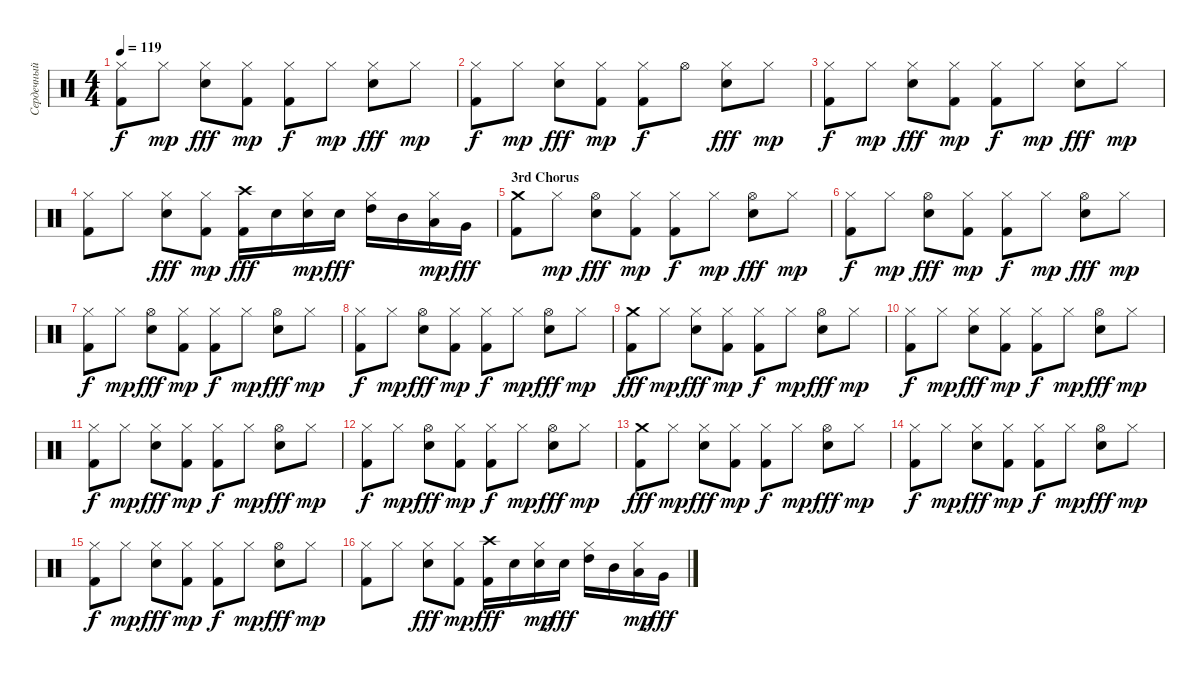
\track ("Сердечный (Ударные)" "Сердечный ") {instrument percussion}
\staff {score}
\articulation defaults
\ts (4 4)
\tempo 119
\clef neutral
\ks c
("Kick (hit) 2" "Hi-Hat (closed)").8{dy f} "Hi-Hat (closed)".8{dy mp} ("Hi-Hat (closed)" "Electric Snare (hit)").8{dy fff} ("Hi-Hat (closed)" "Kick (hit) 2").8{dy mp} ("Hi-Hat (closed)" "Kick (hit) 2").8{dy f} "Hi-Hat (closed)".8{dy mp} ("Hi-Hat (closed)" "Electric Snare (hit)").8{dy fff} "Hi-Hat (closed)".8{dy mp} |
("Kick (hit) 2" "Hi-Hat (closed)").8{dy f} "Hi-Hat (closed)".8{dy mp} ("Hi-Hat (closed)" "Electric Snare (hit)").8{dy fff} ("Hi-Hat (closed)" "Kick (hit) 2").8{dy mp} ("Hi-Hat (closed)" "Kick (hit) 2").8{dy f} "Hi-Hat (open)".8 ("Hi-Hat (closed)" "Electric Snare (hit)").8{dy fff} "Hi-Hat (closed)".8{dy mp} |
("Kick (hit) 2" "Hi-Hat (closed)").8{dy f} "Hi-Hat (closed)".8{dy mp} ("Hi-Hat (closed)" "Electric Snare (hit)").8{dy fff} ("Hi-Hat (closed)" "Kick (hit) 2").8{dy mp} ("Hi-Hat (closed)" "Kick (hit) 2").8{dy f} "Hi-Hat (closed)".8{dy mp} ("Hi-Hat (closed)" "Electric Snare (hit)").8{dy fff} "Hi-Hat (closed)".8{dy mp} |
("Kick (hit) 2" "Hi-Hat (closed)").8 "Hi-Hat (closed)".8 ("Hi-Hat (closed)" "Electric Snare (hit)").8{dy fff} ("Hi-Hat (closed)" "Kick (hit) 2").8{dy mp} ("Crash high (hit)" "Kick (hit) 2").16{dy fff} "Electric Snare (hit)".16 ("Electric Snare (hit)" "Hi-Hat (closed)").16{dy mp} "Electric Snare (hit)".16{dy fff} ("Hi-Hat (closed)" "High Tom (hit)").16 "Mid Tom (hit)".16 ("Low Tom (hit)" "Hi-Hat (closed)").16{dy mp} "Very Low Tom (hit)".16{dy fff} |
\section ("" "3rd Chorus")
("Kick (hit) 2" "Crash medium (hit)").8 "Hi-Hat (closed)".8{dy mp} ("Hi-Hat (open)" "Electric Snare (hit)").8{dy fff} ("Hi-Hat (closed)" "Kick (hit) 2").8{dy mp} ("Hi-Hat (closed)" "Kick (hit) 2").8{dy f} "Hi-Hat (closed)".8{dy mp} ("Hi-Hat (open)" "Electric Snare (hit)").8{dy fff} "Hi-Hat (closed)".8{dy mp} |
("Kick (hit) 2" "Hi-Hat (closed)").8{dy f} "Hi-Hat (closed)".8{dy mp} ("Hi-Hat (open)" "Electric Snare (hit)").8{dy fff} ("Hi-Hat (closed)" "Kick (hit) 2").8{dy mp} ("Hi-Hat (closed)" "Kick (hit) 2").8{dy f} "Hi-Hat (closed)".8{dy mp} ("Hi-Hat (open)" "Electric Snare (hit)").8{dy fff} "Hi-Hat (closed)".8{dy mp} |
("Kick (hit) 2" "Hi-Hat (closed)").8{dy f} "Hi-Hat (closed)".8{dy mp} ("Hi-Hat (open)" "Electric Snare (hit)").8{dy fff} ("Hi-Hat (closed)" "Kick (hit) 2").8{dy mp} ("Hi-Hat (closed)" "Kick (hit) 2").8{dy f} "Hi-Hat (closed)".8{dy mp} ("Hi-Hat (open)" "Electric Snare (hit)").8{dy fff} "Hi-Hat (closed)".8{dy mp} |
("Kick (hit) 2" "Hi-Hat (closed)").8{dy f} "Hi-Hat (closed)".8{dy mp} ("Hi-Hat (open)" "Electric Snare (hit)").8{dy fff} ("Hi-Hat (closed)" "Kick (hit) 2").8{dy mp} ("Hi-Hat (closed)" "Kick (hit) 2").8{dy f} "Hi-Hat (closed)".8{dy mp} ("Hi-Hat (open)" "Electric Snare (hit)").8{dy fff} "Hi-Hat (closed)".8{dy mp} |
("Kick (hit) 2" "Crash medium (hit)").8{dy fff} "Hi-Hat (closed)".8{dy mp} ("Hi-Hat (closed)" "Electric Snare (hit)").8{dy fff} ("Hi-Hat (closed)" "Kick (hit) 2").8{dy mp} ("Hi-Hat (closed)" "Kick (hit) 2").8{dy f} "Hi-Hat (closed)".8{dy mp} ("Hi-Hat (open)" "Electric Snare (hit)").8{dy fff} "Hi-Hat (closed)".8{dy mp} |
("Kick (hit) 2" "Hi-Hat (closed)").8{dy f} "Hi-Hat (closed)".8{dy mp} ("Hi-Hat (closed)" "Electric Snare (hit)").8{dy fff} ("Hi-Hat (closed)" "Kick (hit) 2").8{dy mp} ("Hi-Hat (closed)" "Kick (hit) 2").8{dy f} "Hi-Hat (closed)".8{dy mp} ("Hi-Hat (open)" "Electric Snare (hit)").8{dy fff} "Hi-Hat (closed)".8{dy mp} |
("Kick (hit) 2" "Hi-Hat (closed)").8{dy f} "Hi-Hat (closed)".8{dy mp} ("Hi-Hat (closed)" "Electric Snare (hit)").8{dy fff} ("Hi-Hat (closed)" "Kick (hit) 2").8{dy mp} ("Hi-Hat (closed)" "Kick (hit) 2").8{dy f} "Hi-Hat (closed)".8{dy mp} ("Hi-Hat (open)" "Electric Snare (hit)").8{dy fff} "Hi-Hat (closed)".8{dy mp} |
("Kick (hit) 2" "Hi-Hat (closed)").8{dy f} "Hi-Hat (closed)".8{dy mp} ("Hi-Hat (open)" "Electric Snare (hit)").8{dy fff} ("Hi-Hat (closed)" "Kick (hit) 2").8{dy mp} ("Hi-Hat (closed)" "Kick (hit) 2").8{dy f} "Hi-Hat (closed)".8{dy mp} ("Hi-Hat (open)" "Electric Snare (hit)").8{dy fff} "Hi-Hat (closed)".8{dy mp} |
("Kick (hit) 2" "Crash medium (hit)").8{dy fff} "Hi-Hat (closed)".8{dy mp} ("Hi-Hat (closed)" "Electric Snare (hit)").8{dy fff} ("Hi-Hat (closed)" "Kick (hit) 2").8{dy mp} ("Hi-Hat (closed)" "Kick (hit) 2").8{dy f} "Hi-Hat (closed)".8{dy mp} ("Hi-Hat (open)" "Electric Snare (hit)").8{dy fff} "Hi-Hat (closed)".8{dy mp} |
("Kick (hit) 2" "Hi-Hat (closed)").8{dy f} "Hi-Hat (closed)".8{dy mp} ("Hi-Hat (closed)" "Electric Snare (hit)").8{dy fff} ("Hi-Hat (closed)" "Kick (hit) 2").8{dy mp} ("Hi-Hat (closed)" "Kick (hit) 2").8{dy f} "Hi-Hat (closed)".8{dy mp} ("Hi-Hat (open)" "Electric Snare (hit)").8{dy fff} "Hi-Hat (closed)".8{dy mp} |
("Kick (hit) 2" "Hi-Hat (closed)").8{dy f} "Hi-Hat (closed)".8{dy mp} ("Hi-Hat (closed)" "Electric Snare (hit)").8{dy fff} ("Hi-Hat (closed)" "Kick (hit) 2").8{dy mp} ("Hi-Hat (closed)" "Kick (hit) 2").8{dy f} "Hi-Hat (closed)".8{dy mp} ("Hi-Hat (open)" "Electric Snare (hit)").8{dy fff} "Hi-Hat (closed)".8{dy mp} |
("Kick (hit) 2" "Hi-Hat (closed)").8 "Hi-Hat (closed)".8 ("Hi-Hat (closed)" "Electric Snare (hit)").8{dy fff} ("Hi-Hat (closed)" "Kick (hit) 2").8{dy mp} ("Crash high (hit)" "Kick (hit) 2").16{dy fff} "Electric Snare (hit)".16 ("Electric Snare (hit)" "Hi-Hat (closed)").16{dy mp} "Electric Snare (hit)".16{dy fff} ("Hi-Hat (closed)" "High Tom (hit)").16 "Mid Tom (hit)".16 ("Low Tom (hit)" "Hi-Hat (closed)").16{dy mp} "Very Low Tom (hit)".16{dy fff}
